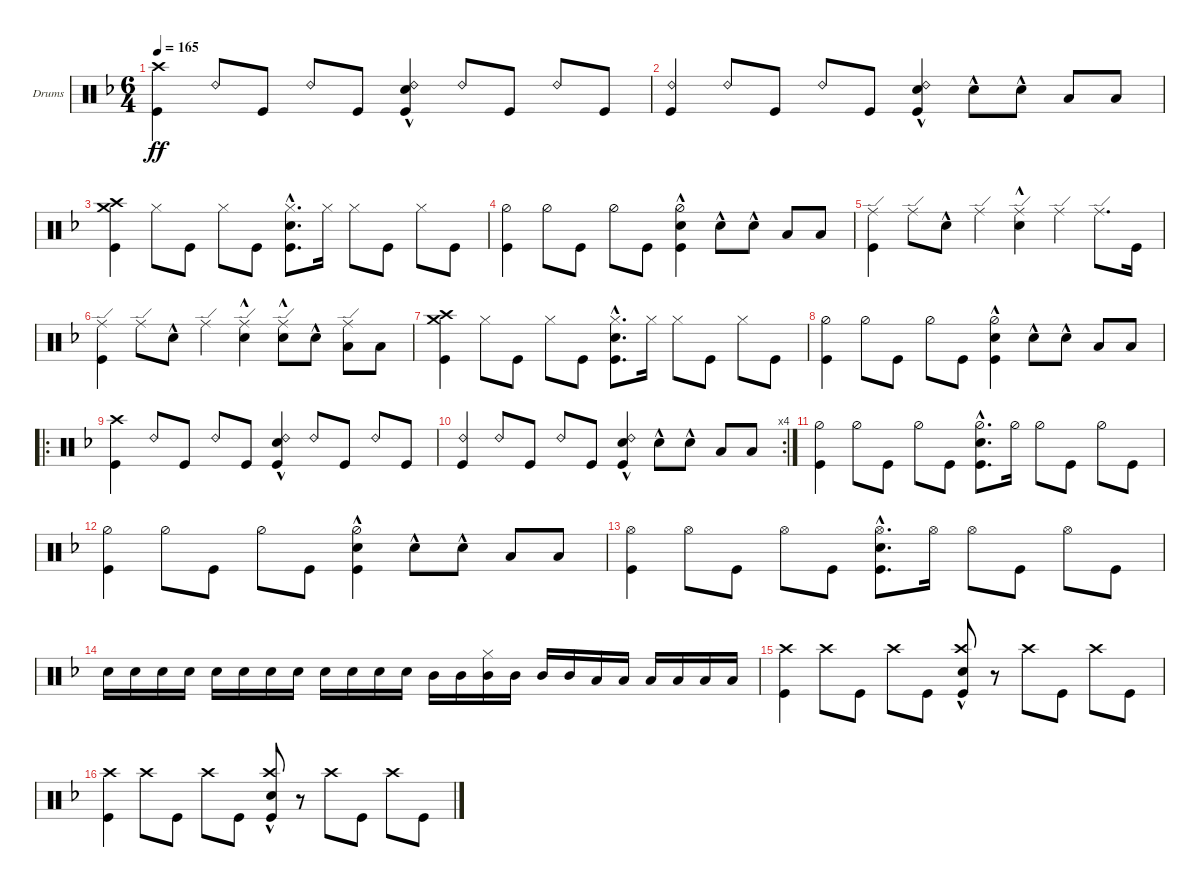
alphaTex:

\defaultSystemsLayout 4
\bracketExtendMode groupsimilarinstruments
\firstSystemTrackNameOrientation horizontal
\otherSystemsTrackNameOrientation horizontal
\track ("Drumkit" "Drums") {instrument percussion}
\staff {score}
\articulation defaults
\ts (6 4)
\tempo 165
\clef neutral
\ks f
("Kick (hit)" "Crash high (hit)").4{dy ff} "Ride (bell) 2".8 "Kick (hit)".8 "Ride (bell) 2".8 "Kick (hit)".8 ("Kick (hit)" "Snare (hit) 2"{hac} "Ride (bell) 2").4 "Ride (bell) 2".8 "Kick (hit)".8 "Ride (bell) 2".8 "Kick (hit)".8 |
("Kick (hit)" "Ride (bell) 2").4 "Ride (bell) 2".8 "Kick (hit)".8 "Ride (bell) 2".8 "Kick (hit)".8 ("Kick (hit)" "Snare (hit) 2"{hac} "Ride (bell) 2").4 "Snare (hit) 2"{hac}.8 "Snare (hit) 2"{hac}.8 "Low Tom (hit)".8 "Low Tom (hit)".8 |
("Kick (hit)" "Crash high (hit)" "Crash medium (hit)").4 "Hi-Hat (closed)".8 "Kick (hit)".8 "Hi-Hat (closed)".8 "Kick (hit)".8 ("Kick (hit)" "Snare (hit) 2"{hac} "Hi-Hat (closed)").8{d} "Hi-Hat (closed)".16 "Hi-Hat (closed)".8 "Kick (hit)".8 "Hi-Hat (closed)".8 "Kick (hit)".8 |
("Hi-Hat (half)" "Kick (hit)").4 "Hi-Hat (half)".8 "Kick (hit)".8 "Hi-Hat (half)".8 "Kick (hit)".8 ("Hi-Hat (half)" "Kick (hit)" "Snare (hit) 2"{hac}).4 "Snare (hit) 2"{hac}.8 "Snare (hit) 2"{hac}.8 "Low Tom (hit)".8 "Low Tom (hit)".8 |
("Ride (edge)" "Kick (hit)").4 "Ride (edge)".8 "Snare (hit) 2"{hac}.8 "Ride (edge)".4 ("Ride (edge)" "Snare (hit) 2"{hac}).4 "Ride (edge)".4 "Ride (edge)".8{d} "Kick (hit)".16 |
("Ride (edge)" "Kick (hit)").4 "Ride (edge)".8 "Snare (hit) 2"{hac}.8 "Ride (edge)".4 ("Ride (edge)" "Snare (hit) 2"{hac}).4 ("Ride (edge)" "Snare (hit) 2"{hac}).8 "Snare (hit) 2"{hac}.8 ("Ride (edge)" "Low Tom (hit)").8 "Low Tom (hit)".8 |
("Kick (hit)" "Crash high (hit)" "Crash medium (hit)").4 "Hi-Hat (closed)".8 "Kick (hit)".8 "Hi-Hat (closed)".8 "Kick (hit)".8 ("Kick (hit)" "Snare (hit) 2"{hac} "Hi-Hat (closed)").8{d} "Hi-Hat (closed)".16 "Hi-Hat (closed)".8 "Kick (hit)".8 "Hi-Hat (closed)".8 "Kick (hit)".8 |
("Hi-Hat (half)" "Kick (hit)").4 "Hi-Hat (half)".8 "Kick (hit)".8 "Hi-Hat (half)".8 "Kick (hit)".8 ("Hi-Hat (half)" "Kick (hit)" "Snare (hit) 2"{hac}).4 "Snare (hit) 2"{hac}.8 "Snare (hit) 2"{hac}.8 "Low Tom (hit)".8 "Low Tom (hit)".8 |
\ro
("Kick (hit)" "Crash high (hit)").4 "Ride (bell) 2".8 "Kick (hit)".8 "Ride (bell) 2".8 "Kick (hit)".8 ("Kick (hit)" "Snare (hit) 2"{hac} "Ride (bell) 2").4 "Ride (bell) 2".8 "Kick (hit)".8 "Ride (bell) 2".8 "Kick (hit)".8 |
\rc 4
("Kick (hit)" "Ride (bell) 2").4 "Ride (bell) 2".8 "Kick (hit)".8 "Ride (bell) 2".8 "Kick (hit)".8 ("Kick (hit)" "Snare (hit) 2"{hac} "Ride (bell) 2").4 "Snare (hit) 2"{hac}.8 "Snare (hit) 2"{hac}.8 "Low Tom (hit)".8 "Low Tom (hit)".8 |
("Hi-Hat (half)" "Kick (hit)").4 "Hi-Hat (half)".8 "Kick (hit)".8 "Hi-Hat (half)".8 "Kick (hit)".8 ("Hi-Hat (half)" "Kick (hit)" "Snare (hit) 2"{hac}).8{d} "Hi-Hat (half)".16 "Hi-Hat (half)".8 "Kick (hit)".8 "Hi-Hat (half)".8 "Kick (hit)".8 |
("Hi-Hat (half)" "Kick (hit)").4 "Hi-Hat (half)".8 "Kick (hit)".8 "Hi-Hat (half)".8 "Kick (hit)".8 ("Hi-Hat (half)" "Kick (hit)" "Snare (hit) 2"{hac}).4 "Snare (hit) 2"{hac}.8 "Snare (hit) 2"{hac}.8 "Low Tom (hit)".8 "Low Tom (hit)".8 |
("Kick (hit)" "Hi-Hat (open)").4 "Hi-Hat (open)".8 "Kick (hit)".8 "Hi-Hat (open)".8 "Kick (hit)".8 ("Kick (hit)" "Snare (hit) 2"{hac} "Hi-Hat (open)").8{d} "Hi-Hat (open)".16 "Hi-Hat (open)".8 "Kick (hit)".8 "Hi-Hat (open)".8 "Kick (hit)".8 |
"Snare (hit) 2".16 "Snare (hit) 2".16 "Snare (hit) 2".16 "Snare (hit) 2".16 "Snare (hit) 2".16 "Snare (hit) 2".16 "Snare (hit) 2".16 "Snare (hit) 2".16 "Snare (hit) 2".16 "Snare (hit) 2".16 "Snare (hit) 2".16 "Snare (hit) 2".16 "Mid Tom (hit)".16 "Mid Tom (hit)".16 ("Mid Tom (hit)" "Hi-Hat (closed)").16 "Mid Tom (hit)".16 "Mid Tom (hit)".16 "Mid Tom (hit)".16 "Low Tom (hit)".16 "Low Tom (hit)".16 "Low Tom (hit)".16 "Low Tom (hit)".16 "Low Tom (hit)".16 "Low Tom (hit)".16 |
("Kick (hit)" "Crash high (hit)").4 "Crash high (hit)".8 "Kick (hit)".8 "Crash high (hit)".8 "Kick (hit)".8 ("Kick (hit)" "Snare (hit) 2"{hac} "Crash high (hit)").8 r.8 "Crash high (hit)".8 "Kick (hit)".8 "Crash high (hit)".8 "Kick (hit)".8 |
("Kick (hit)" "Crash high (hit)").4 "Crash high (hit)".8 "Kick (hit)".8 "Crash high (hit)".8 "Kick (hit)".8 ("Kick (hit)" "Snare (hit) 2"{hac} "Crash high (hit)").8 r.8 "Crash high (hit)".8 "Kick (hit)".8 "Crash high (hit)".8 "Kick (hit)".8
